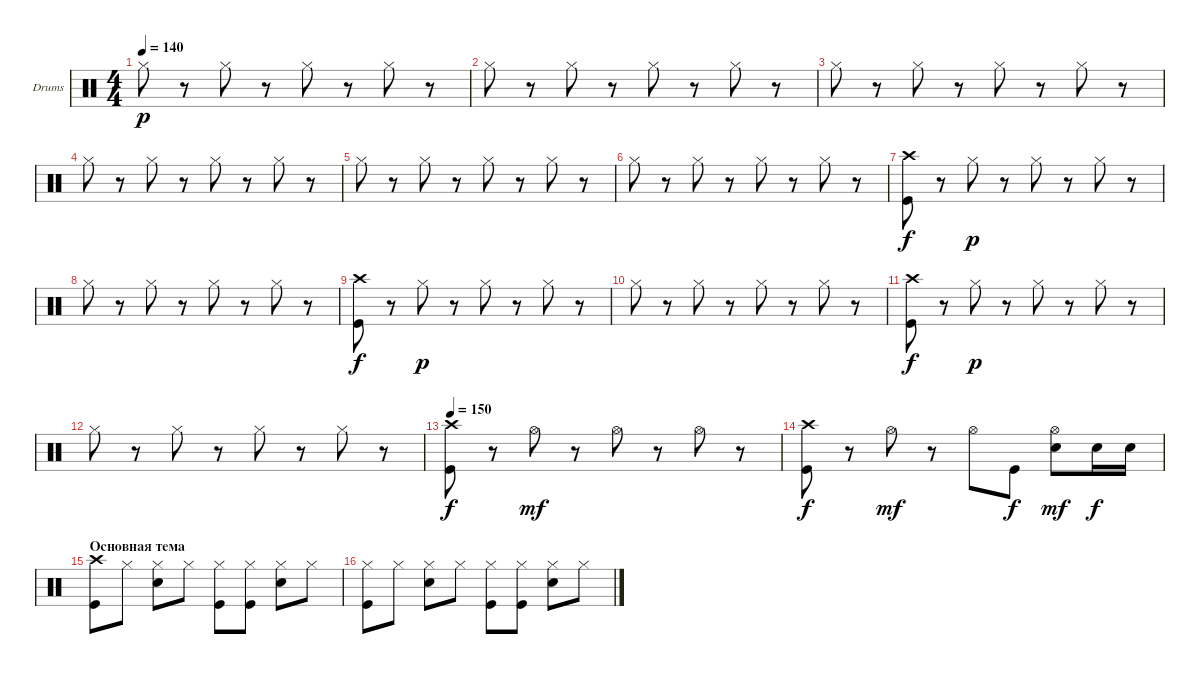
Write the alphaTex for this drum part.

\bracketExtendMode groupsimilarinstruments
\firstSystemTrackNameOrientation horizontal
\otherSystemsTrackNameOrientation horizontal
\track ("Drumkit" "Drums") {instrument percussion}
\staff {score}
\articulation defaults
\ts (4 4)
\tempo 140
\clef neutral
\ks c "Hi-Hat (closed)".8{dy p}
r.8 "Hi-Hat (closed)".8 r.8 "Hi-Hat (closed)".8 r.8 "Hi-Hat (closed)".8 r.8 |
"Hi-Hat (closed)".8 r.8 "Hi-Hat (closed)".8 r.8 "Hi-Hat (closed)".8 r.8 "Hi-Hat (closed)".8 r.8 |
"Hi-Hat (closed)".8 r.8 "Hi-Hat (closed)".8 r.8 "Hi-Hat (closed)".8 r.8 "Hi-Hat (closed)".8 r.8 |
"Hi-Hat (closed)".8 r.8 "Hi-Hat (closed)".8 r.8 "Hi-Hat (closed)".8 r.8 "Hi-Hat (closed)".8 r.8 |
"Hi-Hat (closed)".8 r.8 "Hi-Hat (closed)".8 r.8 "Hi-Hat (closed)".8 r.8 "Hi-Hat (closed)".8 r.8 |
"Hi-Hat (closed)".8 r.8 "Hi-Hat (closed)".8 r.8 "Hi-Hat (closed)".8 r.8 "Hi-Hat (closed)".8 r.8 |
("Crash high (hit)" "Kick (hit)").8{dy f} r.8 "Hi-Hat (closed)".8{dy p} r.8 "Hi-Hat (closed)".8 r.8 "Hi-Hat (closed)".8 r.8 |
"Hi-Hat (closed)".8 r.8 "Hi-Hat (closed)".8 r.8 "Hi-Hat (closed)".8 r.8 "Hi-Hat (closed)".8 r.8 |
("Crash high (hit)" "Kick (hit)").8{dy f} r.8 "Hi-Hat (closed)".8{dy p} r.8 "Hi-Hat (closed)".8 r.8 "Hi-Hat (closed)".8 r.8 |
"Hi-Hat (closed)".8 r.8 "Hi-Hat (closed)".8 r.8 "Hi-Hat (closed)".8 r.8 "Hi-Hat (closed)".8 r.8 |
("Crash high (hit)" "Kick (hit)").8{dy f} r.8 "Hi-Hat (closed)".8{dy p} r.8 "Hi-Hat (closed)".8 r.8 "Hi-Hat (closed)".8 r.8 |
"Hi-Hat (closed)".8 r.8 "Hi-Hat (closed)".8 r.8 "Hi-Hat (closed)".8 r.8 "Hi-Hat (closed)".8 r.8 |
\tempo 150
("Crash high (hit)" "Kick (hit)").8{dy f} r.8 "Hi-Hat (open)".8{dy mf} r.8 "Hi-Hat (open)".8 r.8 "Hi-Hat (open)".8 r.8 |
("Crash high (hit)" "Kick (hit)").8{dy f} r.8 "Hi-Hat (open)".8{dy mf} r.8 "Hi-Hat (open)".8 "Kick (hit)".8{dy f} ("Hi-Hat (open)" "Snare (hit) 2").8{dy mf} "Snare (hit) 2".16{dy f} "Snare (hit) 2".16 |
\section ("" "Основная тема")
("Crash high (hit)" "Kick (hit)").8 "Hi-Hat (closed)".8 ("Hi-Hat (closed)" "Snare (hit) 2").8 "Hi-Hat (closed)".8 ("Hi-Hat (closed)" "Kick (hit)").8 ("Hi-Hat (closed)" "Kick (hit)").8 ("Hi-Hat (closed)" "Snare (hit) 2").8 "Hi-Hat (closed)".8 |
("Hi-Hat (closed)" "Kick (hit)").8 "Hi-Hat (closed)".8 ("Hi-Hat (closed)" "Snare (hit) 2").8 "Hi-Hat (closed)".8 ("Hi-Hat (closed)" "Kick (hit)").8 ("Hi-Hat (closed)" "Kick (hit)").8 ("Hi-Hat (closed)" "Snare (hit) 2").8 "Hi-Hat (closed)".8
